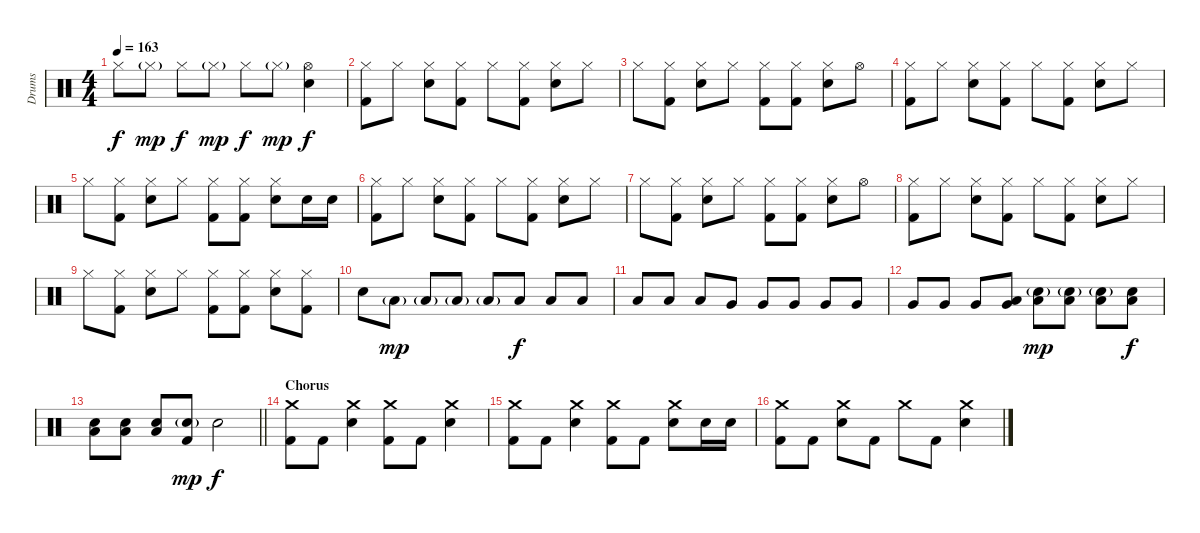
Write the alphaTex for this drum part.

\track ("Drums" "Drums") {instrument percussion}
\staff {score}
\articulation defaults
\ts (4 4)
\tempo 163
\clef neutral
\ks c "Hi-Hat (closed)".8{dy f} "Hi-Hat (closed)"{g}.8{dy mp} "Hi-Hat (closed)".8{dy f} "Hi-Hat (closed)"{g}.8{dy mp} "Hi-Hat (closed)".8{dy f} "Hi-Hat (closed)"{g}.8{dy mp}
("Hi-Hat (open)" "Electric Snare (hit)").4{dy f} |
("Hi-Hat (closed)" "Kick (hit) 2").8 "Hi-Hat (closed)".8 ("Hi-Hat (closed)" "Electric Snare (hit)").8 ("Hi-Hat (closed)" "Kick (hit) 2").8 "Hi-Hat (closed)".8 ("Hi-Hat (closed)" "Kick (hit) 2").8 ("Hi-Hat (closed)" "Electric Snare (hit)").8 "Hi-Hat (closed)".8 |
"Hi-Hat (closed)".8 ("Hi-Hat (closed)" "Kick (hit) 2").8 ("Hi-Hat (closed)" "Electric Snare (hit)").8 "Hi-Hat (closed)".8 ("Hi-Hat (closed)" "Kick (hit) 2").8 ("Hi-Hat (closed)" "Kick (hit) 2").8 ("Hi-Hat (closed)" "Electric Snare (hit)").8 "Hi-Hat (open)".8 |
("Hi-Hat (closed)" "Kick (hit) 2").8 "Hi-Hat (closed)".8 ("Hi-Hat (closed)" "Electric Snare (hit)").8 ("Hi-Hat (closed)" "Kick (hit) 2").8 "Hi-Hat (closed)".8 ("Hi-Hat (closed)" "Kick (hit) 2").8 ("Hi-Hat (closed)" "Electric Snare (hit)").8 "Hi-Hat (closed)".8 |
"Hi-Hat (closed)".8 ("Hi-Hat (closed)" "Kick (hit) 2").8 ("Hi-Hat (closed)" "Electric Snare (hit)").8 "Hi-Hat (closed)".8 ("Hi-Hat (closed)" "Kick (hit) 2").8 ("Hi-Hat (closed)" "Kick (hit) 2").8 ("Hi-Hat (closed)" "Electric Snare (hit)").8 "Electric Snare (hit)".16 "Electric Snare (hit)".16 |
("Hi-Hat (closed)" "Kick (hit) 2").8 "Hi-Hat (closed)".8 ("Hi-Hat (closed)" "Electric Snare (hit)").8 ("Hi-Hat (closed)" "Kick (hit) 2").8 "Hi-Hat (closed)".8 ("Hi-Hat (closed)" "Kick (hit) 2").8 ("Hi-Hat (closed)" "Electric Snare (hit)").8 "Hi-Hat (closed)".8 |
"Hi-Hat (closed)".8 ("Hi-Hat (closed)" "Kick (hit) 2").8 ("Hi-Hat (closed)" "Electric Snare (hit)").8 "Hi-Hat (closed)".8 ("Hi-Hat (closed)" "Kick (hit) 2").8 ("Hi-Hat (closed)" "Kick (hit) 2").8 ("Hi-Hat (closed)" "Electric Snare (hit)").8 "Hi-Hat (open)".8 |
("Hi-Hat (closed)" "Kick (hit) 2").8 "Hi-Hat (closed)".8 ("Hi-Hat (closed)" "Electric Snare (hit)").8 ("Hi-Hat (closed)" "Kick (hit) 2").8 "Hi-Hat (closed)".8 ("Hi-Hat (closed)" "Kick (hit) 2").8 ("Hi-Hat (closed)" "Electric Snare (hit)").8 "Hi-Hat (closed)".8 |
"Hi-Hat (closed)".8 ("Hi-Hat (closed)" "Kick (hit) 2").8 ("Hi-Hat (closed)" "Electric Snare (hit)").8 "Hi-Hat (closed)".8 ("Hi-Hat (closed)" "Kick (hit) 2").8 ("Hi-Hat (closed)" "Kick (hit) 2").8 ("Hi-Hat (closed)" "Electric Snare (hit)").8 ("Hi-Hat (closed)" "Kick (hit) 2").8 |
"Electric Snare (hit)".8 "Low Floor Tom (hit)"{g}.8{dy mp} "Low Floor Tom (hit)"{g}.8 "Low Floor Tom (hit)"{g}.8 "Low Floor Tom (hit)"{g}.8 "Low Floor Tom (hit)".8{dy f} "Low Floor Tom (hit)".8 "Low Floor Tom (hit)".8 |
"Low Floor Tom (hit)".8 "Low Floor Tom (hit)".8 "Low Floor Tom (hit)".8 "Very Low Tom (hit)".8 "Very Low Tom (hit)".8 "Very Low Tom (hit)".8 "Very Low Tom (hit)".8 "Very Low Tom (hit)".8 |
"Very Low Tom (hit)".8 "Very Low Tom (hit)".8 "Very Low Tom (hit)".8 ("Very Low Tom (hit)" "Low Tom (hit)").8 ("Electric Snare (hit)"{g} "Low Tom (hit)").8{dy mp} ("Electric Snare (hit)"{g} "Low Tom (hit)").8 ("Electric Snare (hit)"{g} "Low Tom (hit)").8 ("Electric Snare (hit)" "Low Tom (hit)").8{dy f} |
\barLineRight lightlight
("Electric Snare (hit)" "Low Tom (hit)").8 ("Electric Snare (hit)" "Low Tom (hit)").8 ("Electric Snare (hit)" "Low Tom (hit)").8 ("Electric Snare (hit)"{g} "Kick (hit) 2").8{dy mp} "Electric Snare (hit)".2{dy f} |
\section ("" "Chorus")
("Crash medium (hit)" "Kick (hit) 2").8 "Kick (hit) 2".8 ("Crash medium (hit)" "Electric Snare (hit)").4 ("Crash medium (hit)" "Kick (hit) 2").8 "Kick (hit) 2".8 ("Crash medium (hit)" "Electric Snare (hit)").4 |
("Crash medium (hit)" "Kick (hit) 2").8 "Kick (hit) 2".8 ("Crash medium (hit)" "Electric Snare (hit)").4 ("Crash medium (hit)" "Kick (hit) 2").8 "Kick (hit) 2".8 ("Crash medium (hit)" "Electric Snare (hit)").8 "Electric Snare (hit)".16 "Electric Snare (hit)".16 |
("Crash medium (hit)" "Kick (hit) 2").8 "Kick (hit) 2".8 ("Crash medium (hit)" "Electric Snare (hit)").8 "Kick (hit) 2".8 "Crash medium (hit)".8 "Kick (hit) 2".8 ("Crash medium (hit)" "Electric Snare (hit)").4
